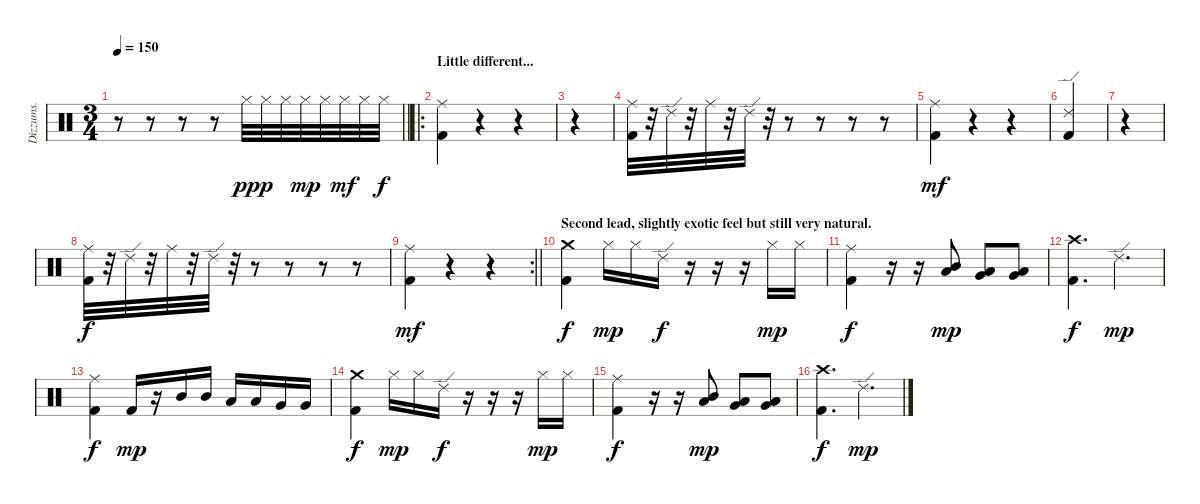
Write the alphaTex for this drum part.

\track ("Dizzums." "Dizzums.") {instrument percussion}
\staff {score}
\articulation defaults
\ts (3 4)
\tempo 150
\clef neutral
\barLineRight lightlight
\ks c
r.8{dy f} r.8 r.8 r.8 "Hi-Hat (closed)".32{dy pp} "Hi-Hat (closed)".32{dy p} "Hi-Hat (closed)".32 "Hi-Hat (closed)".32{dy mp} "Hi-Hat (closed)".32 "Hi-Hat (closed)".32{dy mf} "Hi-Hat (closed)".32 "Hi-Hat (closed)".32{dy f} |
\ro
\section ("" "Little different...")
("Ride (middle)" "Kick (hit) 2").4 r.4 r.4 |
r.4 |
("Ride (middle)" "Kick (hit) 2").32 r.32 "Ride (edge) 2".32 r.32 "Ride (middle)".32 r.32 "Ride (edge) 2".32 r.32 r.8 r.8 r.8 r.8 |
("Ride (middle)" "Kick (hit) 2").4{dy mf} r.4 r.4 |
("Ride (edge) 2" "Kick (hit) 2").4 |
r.4 |
("Ride (middle)" "Kick (hit) 2").32{dy f} r.32 "Ride (edge) 2".32 r.32 "Ride (middle)".32 r.32 "Ride (edge) 2".32 r.32 r.8 r.8 r.8 r.8 |
\rc 2
\barLineRight lightlight
("Ride (middle)" "Kick (hit) 2").4{dy mf} r.4 r.4 |
\section ("" "Second lead, slightly exotic feel but still very natural.")
("Crash medium (hit)" "Kick (hit) 2").4{dy f} "Hi-Hat (closed)".16{dy mp} "Hi-Hat (closed)".16 "Ride (edge) 2".16{dy f} r.16 r.16 r.16 "Hi-Hat (closed)".16{dy mp} "Hi-Hat (closed)".16 |
("Ride (middle)" "Kick (hit) 2").4{dy f} r.16 r.16 ("Mid Tom (hit)" "Low Tom (hit)").8{dy mp} ("Low Tom (hit)" "Very Low Tom (hit)").8 ("Very Low Tom (hit)" "Low Floor Tom (hit)").8 |
("Crash high (hit)" "Kick (hit) 2").4{d dy f} "Ride (edge) 2".4{d dy mp} |
("Ride (middle)" "Kick (hit) 2").4{dy f} "Kick (hit) 2".16{dy mp} r.16 "Mid Tom (hit)".16 "Mid Tom (hit)".16 "Low Tom (hit)".16 "Low Tom (hit)".16 "Very Low Tom (hit)".16 "Very Low Tom (hit)".16 |
("Crash medium (hit)" "Kick (hit) 2").4{dy f} "Hi-Hat (closed)".16{dy mp} "Hi-Hat (closed)".16 "Ride (edge) 2".16{dy f} r.16 r.16 r.16 "Hi-Hat (closed)".16{dy mp} "Hi-Hat (closed)".16 |
("Ride (middle)" "Kick (hit) 2").4{dy f} r.16 r.16 ("Mid Tom (hit)" "Low Tom (hit)").8{dy mp} ("Low Tom (hit)" "Very Low Tom (hit)").8 ("Very Low Tom (hit)" "Low Floor Tom (hit)").8 |
("Crash high (hit)" "Kick (hit) 2").4{d dy f} "Ride (edge) 2".4{d dy mp}
